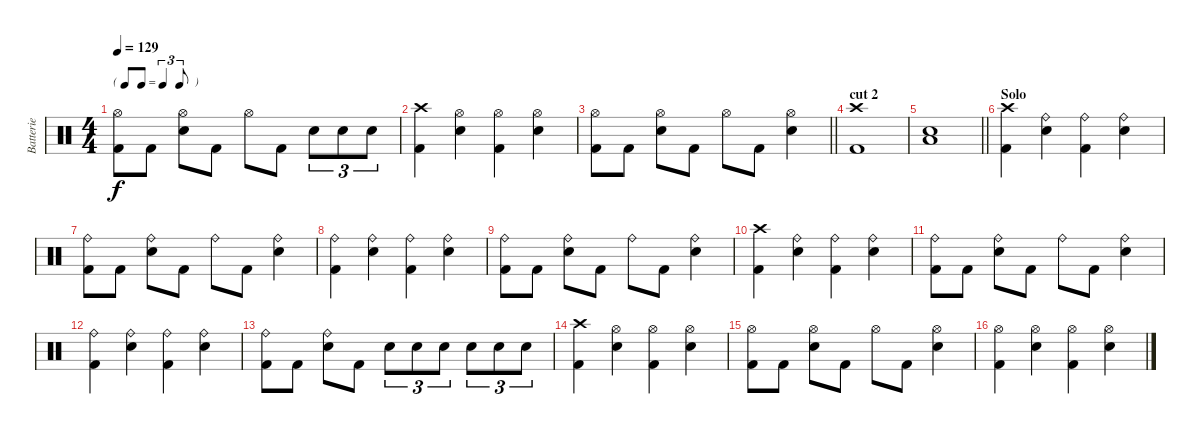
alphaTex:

\track ("Batterie" "Batterie") {instrument percussion}
\staff {score}
\articulation defaults
\ts (4 4)
\tf triplet8th
\tempo 129
\clef neutral
\ks c
("Hi-Hat (open)" "Kick (hit) 2").8{dy f} "Kick (hit) 2".8 ("Hi-Hat (open)" "Snare (hit) 2").8 "Kick (hit) 2".8 "Hi-Hat (open)".8 "Kick (hit) 2".8 "Snare (hit) 2".8{tu (3 2)} "Snare (hit) 2".8{tu (3 2)} "Snare (hit) 2".8{tu (3 2)} |
("Crash high (hit)" "Kick (hit) 2").4 ("Hi-Hat (open)" "Snare (hit) 2").4 ("Hi-Hat (open)" "Kick (hit) 2").4 ("Hi-Hat (open)" "Snare (hit) 2").4 |
\barLineRight lightlight
("Hi-Hat (open)" "Kick (hit) 2").8 "Kick (hit) 2".8 ("Hi-Hat (open)" "Snare (hit) 2").8 "Kick (hit) 2".8 "Hi-Hat (open)".8 "Kick (hit) 2".8 ("Hi-Hat (open)" "Snare (hit) 2").4 |
\section ("" "cut 2")
("Crash high (hit)" "Kick (hit) 2").1 |
\barLineRight lightlight
("Snare (hit) 2" "Low Floor Tom (hit)").1 |
\section ("" "Solo")
("Crash high (hit)" "Kick (hit) 2").4 ("Ride (bell)" "Snare (hit) 2").4 ("Ride (bell)" "Kick (hit) 2").4 ("Ride (bell)" "Snare (hit) 2").4 |
("Ride (bell)" "Kick (hit) 2").8 "Kick (hit) 2".8 ("Ride (bell)" "Snare (hit) 2").8 "Kick (hit) 2".8 "Ride (bell)".8 "Kick (hit) 2".8 ("Ride (bell)" "Snare (hit) 2").4 |
("Ride (bell)" "Kick (hit) 2").4 ("Ride (bell)" "Snare (hit) 2").4 ("Ride (bell)" "Kick (hit) 2").4 ("Ride (bell)" "Snare (hit) 2").4 |
("Ride (bell)" "Kick (hit) 2").8 "Kick (hit) 2".8 ("Ride (bell)" "Snare (hit) 2").8 "Kick (hit) 2".8 "Ride (bell)".8 "Kick (hit) 2".8 ("Ride (bell)" "Snare (hit) 2").4 |
("Crash high (hit)" "Kick (hit) 2").4 ("Ride (bell)" "Snare (hit) 2").4 ("Ride (bell)" "Kick (hit) 2").4 ("Ride (bell)" "Snare (hit) 2").4 |
("Ride (bell)" "Kick (hit) 2").8 "Kick (hit) 2".8 ("Ride (bell)" "Snare (hit) 2").8 "Kick (hit) 2".8 "Ride (bell)".8 "Kick (hit) 2".8 ("Ride (bell)" "Snare (hit) 2").4 |
("Ride (bell)" "Kick (hit) 2").4 ("Ride (bell)" "Snare (hit) 2").4 ("Ride (bell)" "Kick (hit) 2").4 ("Ride (bell)" "Snare (hit) 2").4 |
("Ride (bell)" "Kick (hit) 2").8 "Kick (hit) 2".8 ("Ride (bell)" "Snare (hit) 2").8 "Kick (hit) 2".8 "Snare (hit) 2".8{tu (3 2)} "Snare (hit) 2".8{tu (3 2)} "Snare (hit) 2".8{tu (3 2)} "Snare (hit) 2".8{tu (3 2)} "Snare (hit) 2".8{tu (3 2)} "Snare (hit) 2".8{tu (3 2)} |
("Crash high (hit)" "Kick (hit) 2").4 ("Hi-Hat (open)" "Snare (hit) 2").4 ("Hi-Hat (open)" "Kick (hit) 2").4 ("Hi-Hat (open)" "Snare (hit) 2").4 |
("Hi-Hat (open)" "Kick (hit) 2").8 "Kick (hit) 2".8 ("Hi-Hat (open)" "Snare (hit) 2").8 "Kick (hit) 2".8 "Hi-Hat (open)".8 "Kick (hit) 2".8 ("Hi-Hat (open)" "Snare (hit) 2").4 |
("Hi-Hat (open)" "Kick (hit) 2").4 ("Hi-Hat (open)" "Snare (hit) 2").4 ("Hi-Hat (open)" "Kick (hit) 2").4 ("Hi-Hat (open)" "Snare (hit) 2").4
